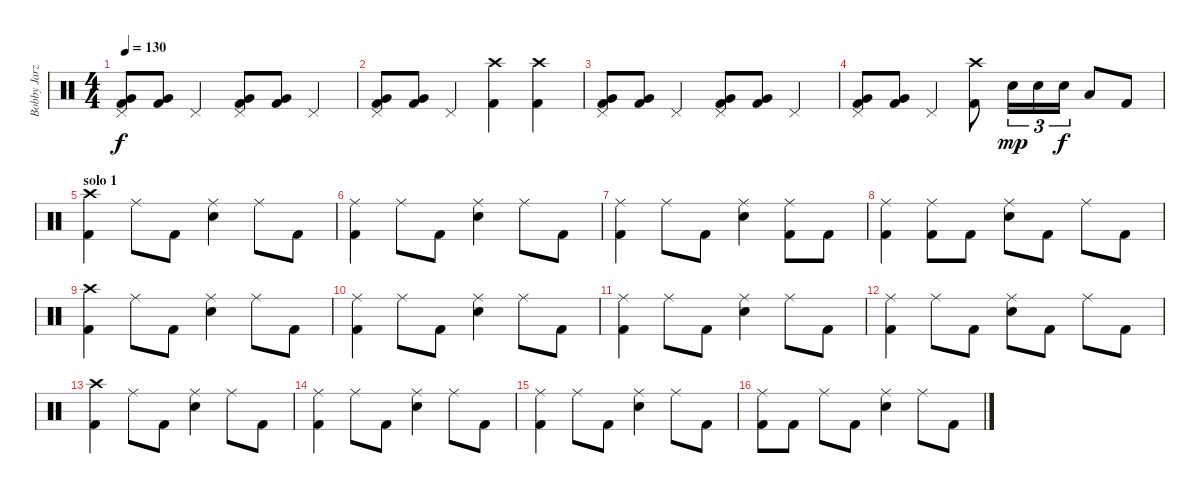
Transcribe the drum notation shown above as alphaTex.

\track ("Bobby Jarzombek" "Bobby Jarz") {instrument percussion}
\staff {score}
\articulation defaults
\ts (4 4)
\tempo 130
\clef neutral
\ks c
("Kick (hit) 2" "Pedal Hi-Hat (hit)" "Very Low Tom (hit)").8{dy f} ("Kick (hit) 2" "Very Low Tom (hit)").8 "Pedal Hi-Hat (hit)".4 ("Kick (hit) 2" "Pedal Hi-Hat (hit)" "Very Low Tom (hit)").8 ("Kick (hit) 2" "Very Low Tom (hit)").8 "Pedal Hi-Hat (hit)".4 |
("Kick (hit) 2" "Pedal Hi-Hat (hit)" "Very Low Tom (hit)").8 ("Kick (hit) 2" "Very Low Tom (hit)").8 "Pedal Hi-Hat (hit)".4 ("Kick (hit) 2" "Crash high (hit)").4 ("Kick (hit) 2" "Crash high (hit)").4 |
("Kick (hit) 2" "Pedal Hi-Hat (hit)" "Very Low Tom (hit)").8 ("Kick (hit) 2" "Very Low Tom (hit)").8 "Pedal Hi-Hat (hit)".4 ("Kick (hit) 2" "Pedal Hi-Hat (hit)" "Very Low Tom (hit)").8 ("Kick (hit) 2" "Very Low Tom (hit)").8 "Pedal Hi-Hat (hit)".4 |
("Kick (hit) 2" "Pedal Hi-Hat (hit)" "Very Low Tom (hit)").8 ("Kick (hit) 2" "Very Low Tom (hit)").8 "Pedal Hi-Hat (hit)".4 ("Kick (hit) 2" "Crash high (hit)").8 "Snare (hit) 2".16{tu (3 2) dy mp} "Snare (hit) 2".16{tu (3 2)} "Snare (hit) 2".16{tu (3 2) dy f} "Low Tom (hit)".8 "Kick (hit) 2".8 |
\section ("" "solo 1")
("Kick (hit) 2" "Crash high (hit)").4 "Ride (middle)".8 "Kick (hit) 2".8 ("Ride (middle)" "Snare (hit) 2").4 "Ride (middle)".8 "Kick (hit) 2".8 |
("Kick (hit) 2" "Ride (middle)").4 "Ride (middle)".8 "Kick (hit) 2".8 ("Ride (middle)" "Snare (hit) 2").4 "Ride (middle)".8 "Kick (hit) 2".8 |
("Kick (hit) 2" "Ride (middle)").4 "Ride (middle)".8 "Kick (hit) 2".8 ("Ride (middle)" "Snare (hit) 2").4 ("Kick (hit) 2" "Ride (middle)").8 "Kick (hit) 2".8 |
("Kick (hit) 2" "Ride (middle)").4 ("Kick (hit) 2" "Ride (middle)").8 "Kick (hit) 2".8 ("Ride (middle)" "Snare (hit) 2").8 "Kick (hit) 2".8 "Ride (middle)".8 "Kick (hit) 2".8 |
("Kick (hit) 2" "Crash high (hit)").4 "Ride (middle)".8 "Kick (hit) 2".8 ("Ride (middle)" "Snare (hit) 2").4 "Ride (middle)".8 "Kick (hit) 2".8 |
("Kick (hit) 2" "Ride (middle)").4 "Ride (middle)".8 "Kick (hit) 2".8 ("Ride (middle)" "Snare (hit) 2").4 "Ride (middle)".8 "Kick (hit) 2".8 |
("Kick (hit) 2" "Ride (middle)").4 "Ride (middle)".8 "Kick (hit) 2".8 ("Ride (middle)" "Snare (hit) 2").4 "Ride (middle)".8 "Kick (hit) 2".8 |
("Kick (hit) 2" "Ride (middle)").4 "Ride (middle)".8 "Kick (hit) 2".8 ("Ride (middle)" "Snare (hit) 2").8 "Kick (hit) 2".8 "Ride (middle)".8 "Kick (hit) 2".8 |
("Kick (hit) 2" "Crash high (hit)").4 "Ride (middle)".8 "Kick (hit) 2".8 ("Ride (middle)" "Snare (hit) 2").4 "Ride (middle)".8 "Kick (hit) 2".8 |
("Kick (hit) 2" "Ride (middle)").4 "Ride (middle)".8 "Kick (hit) 2".8 ("Ride (middle)" "Snare (hit) 2").4 "Ride (middle)".8 "Kick (hit) 2".8 |
("Kick (hit) 2" "Ride (middle)").4 "Ride (middle)".8 "Kick (hit) 2".8 ("Ride (middle)" "Snare (hit) 2").4 "Ride (middle)".8 "Kick (hit) 2".8 |
("Kick (hit) 2" "Ride (middle)").8 "Kick (hit) 2".8 "Ride (middle)".8 "Kick (hit) 2".8 ("Ride (middle)" "Snare (hit) 2").4 "Ride (middle)".8 "Kick (hit) 2".8
